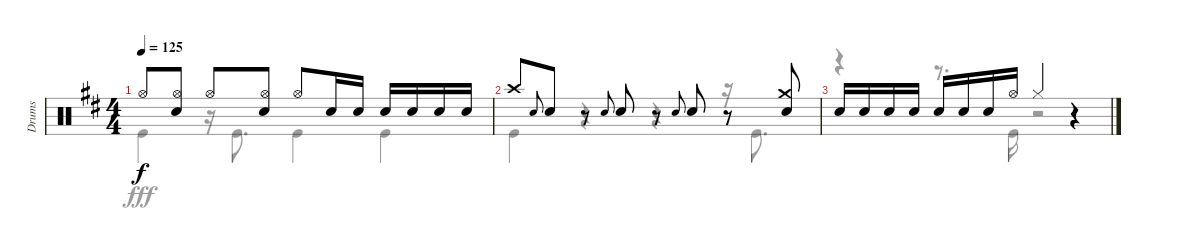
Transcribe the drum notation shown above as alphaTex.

\track ("Drums" "Drums") {instrument percussion}
\staff {score}
\articulation defaults
\voice
\ts (4 4)
\tempo 125
\clef neutral
\ks d "Hi-Hat (open)".8{dy f}
("Hi-Hat (open)" "Snare (hit) 2").8 "Hi-Hat (open)".8 ("Hi-Hat (open)" "Snare (hit) 2").8 "Hi-Hat (open)".8 "Snare (hit) 2".16 "Snare (hit) 2".16 "Snare (hit) 2".16 "Snare (hit) 2".16 "Snare (hit) 2".16 "Snare (hit) 2".16 |
"Crash high (hit)".8 "Snare (hit) 2".8{gr onbeat} "Snare (hit) 2".8 r.8 "Snare (hit) 2".8{gr onbeat} "Snare (hit) 2".8 r.8 "Snare (hit) 2".8{gr onbeat} "Snare (hit) 2".8 r.8 ("Crash medium (hit)" "Snare (hit) 2").8 |
"Snare (hit) 2".16 "Snare (hit) 2".16 "Snare (hit) 2".16 "Snare (hit) 2".16 "Snare (hit) 2".16 "Snare (hit) 2".16 "Snare (hit) 2".16 "Hi-Hat (open)".16 "Hi-Hat (closed)".4 r.4
\voice
\clef neutral
\ottava regular
\simile none
\ks d "Kick (hit)".4{dy fff}
r.16 "Kick (hit)".8{d} "Kick (hit)".4 "Kick (hit)".4 |
"Kick (hit)".4 r.4 r.4 r.16 "Kick (hit)".8{d} |
r.4 r.8{d} "Kick (hit)".16 r.2
